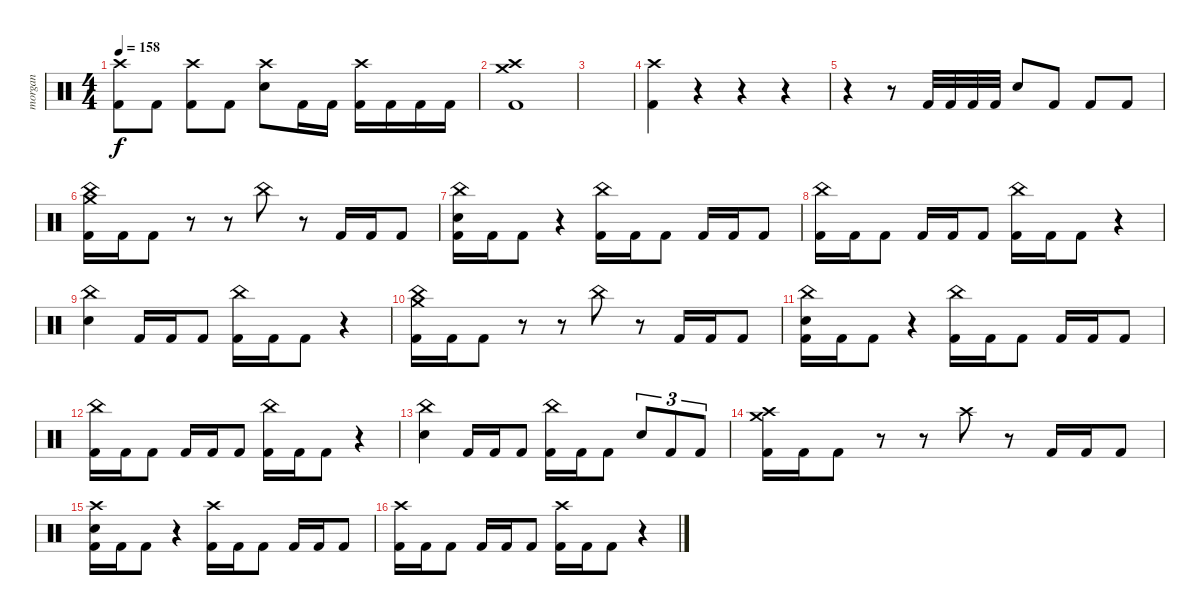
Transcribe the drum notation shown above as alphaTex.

\track ("morgan" "morgan") {instrument percussion}
\staff {score}
\articulation defaults
\ts (4 4)
\tempo 158
\clef neutral
\ks c
("Crash high (hit)" "Kick (hit) 2").8{dy f} "Kick (hit) 2".8 ("Crash high (hit)" "Kick (hit) 2").8 "Kick (hit) 2".8 ("Crash high (hit)" "Electric Snare (hit)").8 "Kick (hit) 2".16 "Kick (hit) 2".16 ("Crash high (hit)" "Kick (hit) 2").16 "Kick (hit) 2".16 "Kick (hit) 2".16 "Kick (hit) 2".16 |
("Crash medium (hit)" "Crash high (hit)" "Kick (hit) 2").1 |
|
("Crash high (hit)" "Kick (hit) 2").4 r.4 r.4 r.4 |
r.4 r.8 "Kick (hit) 2".32 "Kick (hit) 2".32 "Kick (hit) 2".32 "Kick (hit) 2".32 "Electric Snare (hit)".8 "Kick (hit) 2".8 "Kick (hit) 2".8 "Kick (hit) 2".8 |
("Crash medium (hit)" "China (hit)" "Kick (hit) 2").16 "Kick (hit) 2".16 "Kick (hit) 2".8 r.8 r.8 "China (hit)".8 r.8 "Kick (hit) 2".16 "Kick (hit) 2".16 "Kick (hit) 2".8 |
("China (hit)" "Electric Snare (hit)" "Kick (hit) 2").16 "Kick (hit) 2".16 "Kick (hit) 2".8 r.4 ("China (hit)" "Kick (hit) 2").16 "Kick (hit) 2".16 "Kick (hit) 2".8 "Kick (hit) 2".16 "Kick (hit) 2".16 "Kick (hit) 2".8 |
("China (hit)" "Kick (hit) 2").16 "Kick (hit) 2".16 "Kick (hit) 2".8 "Kick (hit) 2".16 "Kick (hit) 2".16 "Kick (hit) 2".8 ("China (hit)" "Kick (hit) 2").16 "Kick (hit) 2".16 "Kick (hit) 2".8 r.4 |
("China (hit)" "Electric Snare (hit)").4 "Kick (hit) 2".16 "Kick (hit) 2".16 "Kick (hit) 2".8 ("China (hit)" "Kick (hit) 2").16 "Kick (hit) 2".16 "Kick (hit) 2".8 r.4 |
("Crash medium (hit)" "China (hit)" "Kick (hit) 2").16 "Kick (hit) 2".16 "Kick (hit) 2".8 r.8 r.8 "China (hit)".8 r.8 "Kick (hit) 2".16 "Kick (hit) 2".16 "Kick (hit) 2".8 |
("China (hit)" "Electric Snare (hit)" "Kick (hit) 2").16 "Kick (hit) 2".16 "Kick (hit) 2".8 r.4 ("China (hit)" "Kick (hit) 2").16 "Kick (hit) 2".16 "Kick (hit) 2".8 "Kick (hit) 2".16 "Kick (hit) 2".16 "Kick (hit) 2".8 |
("China (hit)" "Kick (hit) 2").16 "Kick (hit) 2".16 "Kick (hit) 2".8 "Kick (hit) 2".16 "Kick (hit) 2".16 "Kick (hit) 2".8 ("China (hit)" "Kick (hit) 2").16 "Kick (hit) 2".16 "Kick (hit) 2".8 r.4 |
("China (hit)" "Electric Snare (hit)").4 "Kick (hit) 2".16 "Kick (hit) 2".16 "Kick (hit) 2".8 ("China (hit)" "Kick (hit) 2").16 "Kick (hit) 2".16 "Kick (hit) 2".8 "Electric Snare (hit)".8{tu (3 2)} "Kick (hit) 2".8{tu (3 2)} "Kick (hit) 2".8{tu (3 2)} |
("Crash medium (hit)" "Crash high (hit)" "Kick (hit) 2").16 "Kick (hit) 2".16 "Kick (hit) 2".8 r.8 r.8 "Crash high (hit)".8 r.8 "Kick (hit) 2".16 "Kick (hit) 2".16 "Kick (hit) 2".8 |
("Crash high (hit)" "Electric Snare (hit)" "Kick (hit) 2").16 "Kick (hit) 2".16 "Kick (hit) 2".8 r.4 ("Crash high (hit)" "Kick (hit) 2").16 "Kick (hit) 2".16 "Kick (hit) 2".8 "Kick (hit) 2".16 "Kick (hit) 2".16 "Kick (hit) 2".8 |
("Crash high (hit)" "Kick (hit) 2").16 "Kick (hit) 2".16 "Kick (hit) 2".8 "Kick (hit) 2".16 "Kick (hit) 2".16 "Kick (hit) 2".8 ("Crash high (hit)" "Kick (hit) 2").16 "Kick (hit) 2".16 "Kick (hit) 2".8 r.4
